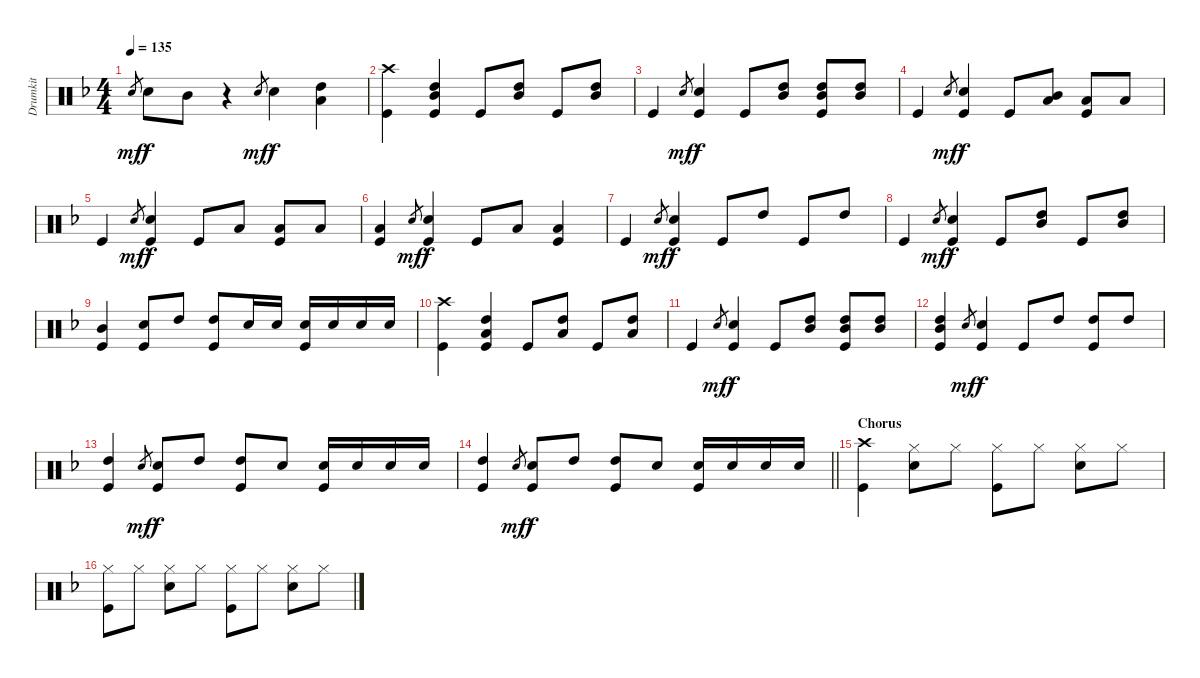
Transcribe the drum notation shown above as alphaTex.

\track ("Drumkit" "Drumkit") {instrument percussion}
\staff {score}
\articulation defaults
\ts (4 4)
\tempo 135
\clef neutral
\ks f "Snare (hit)".8{gr dy mf} "Snare (hit) 2".8{dy f} "Mid Tom (hit)".8
r.4 "Snare (hit)".8{gr dy mf} "Snare (hit) 2".4{dy f} ("High Tom (hit)" "Low Tom (hit)").4 |
("Crash high (hit)" "Kick (hit)").4 ("High Tom (hit)" "Mid Tom (hit)" "Kick (hit)").4 "Kick (hit)".8 ("High Tom (hit)" "Mid Tom (hit)").8 "Kick (hit)".8 ("High Tom (hit)" "Mid Tom (hit)").8 |
"Kick (hit)".4 "Snare (hit)".8{gr dy mf} ("Snare (hit) 2" "Kick (hit)").4{dy f} "Kick (hit)".8 ("High Tom (hit)" "Mid Tom (hit)").8 ("High Tom (hit)" "Mid Tom (hit)" "Kick (hit)").8 ("High Tom (hit)" "Mid Tom (hit)").8 |
"Kick (hit)".4 "Snare (hit)".8{gr dy mf} ("Snare (hit) 2" "Kick (hit)").4{dy f} "Kick (hit)".8 ("Mid Tom (hit)" "Low Tom (hit)").8 ("Low Tom (hit)" "Kick (hit)").8 "Low Tom (hit)".8 |
"Kick (hit)".4 "Snare (hit)".8{gr dy mf} ("Snare (hit) 2" "Kick (hit)").4{dy f} "Kick (hit)".8 "Low Tom (hit)".8 ("Low Tom (hit)" "Kick (hit)").8 "Low Tom (hit)".8 |
("Low Tom (hit)" "Kick (hit)").4 "Snare (hit)".8{gr dy mf} ("Snare (hit) 2" "Kick (hit)").4{dy f} "Kick (hit)".8 "Low Tom (hit)".8 ("Low Tom (hit)" "Kick (hit)").4 |
"Kick (hit)".4 "Snare (hit)".8{gr dy mf} ("Snare (hit) 2" "Kick (hit)").4{dy f} "Kick (hit)".8 "High Tom (hit)".8 "Kick (hit)".8 "High Tom (hit)".8 |
"Kick (hit)".4 "Snare (hit)".8{gr dy mf} ("Snare (hit) 2" "Kick (hit)").4{dy f} "Kick (hit)".8 ("High Tom (hit)" "Mid Tom (hit)").8 "Kick (hit)".8 ("High Tom (hit)" "Mid Tom (hit)").8 |
("Mid Tom (hit)" "Kick (hit)").4 ("Snare (hit) 2" "Kick (hit)").8 "High Tom (hit)".8 ("High Tom (hit)" "Kick (hit)").8 "Snare (hit) 2".16 "Snare (hit) 2".16 ("Snare (hit) 2" "Kick (hit)").16 "Snare (hit) 2".16 "Snare (hit) 2".16 "Snare (hit) 2".16 |
("Crash high (hit)" "Kick (hit)").4 ("High Tom (hit)" "Low Tom (hit)" "Kick (hit)").4 "Kick (hit)".8 ("High Tom (hit)" "Low Tom (hit)").8 "Kick (hit)".8 ("High Tom (hit)" "Low Tom (hit)").8 |
"Kick (hit)".4 "Snare (hit)".8{gr dy mf} ("Snare (hit) 2" "Kick (hit)").4{dy f} "Kick (hit)".8 ("High Tom (hit)" "Mid Tom (hit)").8 ("High Tom (hit)" "Mid Tom (hit)" "Kick (hit)").8 ("High Tom (hit)" "Mid Tom (hit)").8 |
("High Tom (hit)" "Mid Tom (hit)" "Kick (hit)").4 "Snare (hit)".8{gr dy mf} ("Snare (hit) 2" "Kick (hit)").4{dy f} "Kick (hit)".8 "High Tom (hit)".8 ("High Tom (hit)" "Kick (hit)").8 "High Tom (hit)".8 |
("High Tom (hit)" "Kick (hit)").4 "Snare (hit)".8{gr dy mf} ("Snare (hit) 2" "Kick (hit)").8{dy f} "High Tom (hit)".8 ("High Tom (hit)" "Kick (hit)").8 "Snare (hit) 2".8 ("Snare (hit) 2" "Kick (hit)").16 "Snare (hit) 2".16 "Snare (hit) 2".16 "Snare (hit) 2".16 |
\barLineRight lightlight
("High Tom (hit)" "Kick (hit)").4 "Snare (hit)".8{gr dy mf} ("Snare (hit) 2" "Kick (hit)").8{dy f} "High Tom (hit)".8 ("High Tom (hit)" "Kick (hit)").8 "Snare (hit) 2".8 ("Snare (hit) 2" "Kick (hit)").16 "Snare (hit) 2".16 "Snare (hit) 2".16 "Snare (hit) 2".16 |
\section ("" "Chorus")
("Crash high (hit)" "Kick (hit)").4 ("Hi-Hat (closed)" "Snare (hit) 2").8 "Hi-Hat (closed)".8 ("Hi-Hat (closed)" "Kick (hit)").8 "Hi-Hat (closed)".8 ("Hi-Hat (closed)" "Snare (hit) 2").8 "Hi-Hat (closed)".8 |
("Hi-Hat (closed)" "Kick (hit)").8 "Hi-Hat (closed)".8 ("Hi-Hat (closed)" "Snare (hit) 2").8 "Hi-Hat (closed)".8 ("Hi-Hat (closed)" "Kick (hit)").8 "Hi-Hat (closed)".8 ("Hi-Hat (closed)" "Snare (hit) 2").8 "Hi-Hat (closed)".8
